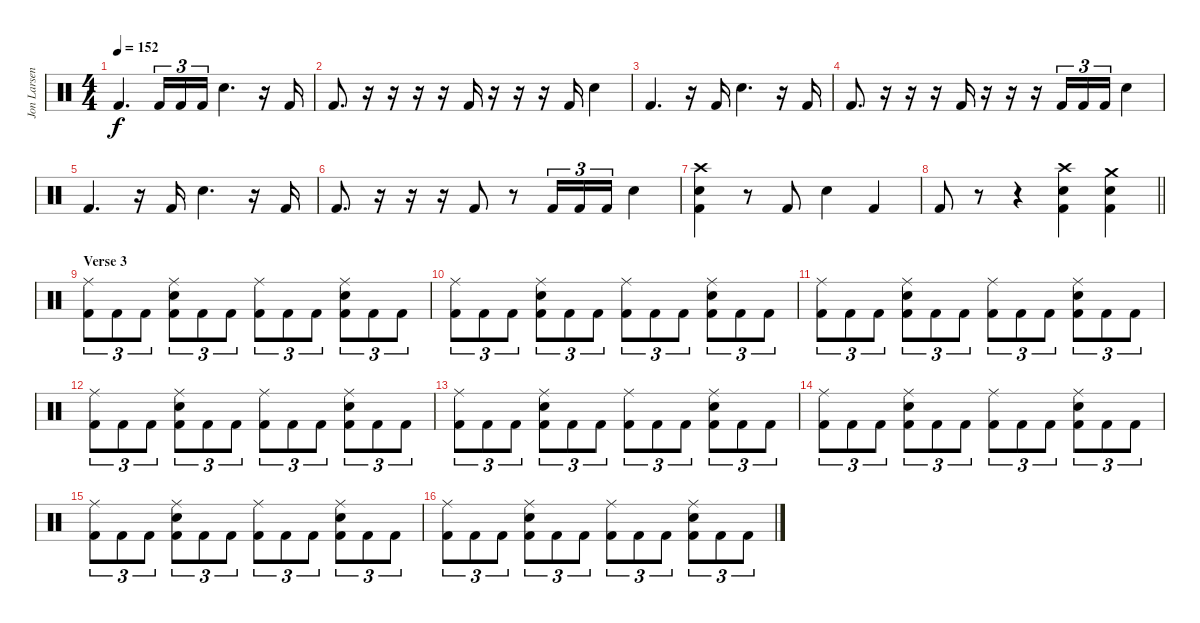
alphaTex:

\track ("Jon Larsen" "Jon Larsen") {instrument percussion}
\staff {score}
\articulation defaults
\ts (4 4)
\tempo 152
\clef neutral
\ks c "Kick (hit) 2".4{d dy f} "Kick (hit) 2".16{tu (3 2)} "Kick (hit) 2".16{tu (3 2)} "Kick (hit) 2".16{tu (3 2)} "Electric Snare (hit)".4{d}
r.16 "Kick (hit) 2".16 |
"Kick (hit) 2".8{d} r.16 r.16 r.16 r.16 "Kick (hit) 2".16 r.16 r.16 r.16 "Kick (hit) 2".16 "Electric Snare (hit)".4 |
"Kick (hit) 2".4{d} r.16 "Kick (hit) 2".16 "Electric Snare (hit)".4{d} r.16 "Kick (hit) 2".16 |
"Kick (hit) 2".8{d} r.16 r.16 r.16 "Kick (hit) 2".16 r.16 r.16 r.16 "Kick (hit) 2".16{tu (3 2)} "Kick (hit) 2".16{tu (3 2)} "Kick (hit) 2".16{tu (3 2)} "Electric Snare (hit)".4 |
"Kick (hit) 2".4{d} r.16 "Kick (hit) 2".16 "Electric Snare (hit)".4{d} r.16 "Kick (hit) 2".16 |
"Kick (hit) 2".8{d} r.16 r.16 r.16 "Kick (hit) 2".8 r.8 "Kick (hit) 2".16{tu (3 2)} "Kick (hit) 2".16{tu (3 2)} "Kick (hit) 2".16{tu (3 2)} "Electric Snare (hit)".4 |
("Kick (hit) 2" "Electric Snare (hit)" "Crash high (hit)").4 r.8 "Kick (hit) 2".8 "Electric Snare (hit)".4 "Kick (hit) 2".4 |
\barLineRight lightlight "Kick (hit) 2".8
r.8 r.4 ("Kick (hit) 2" "Electric Snare (hit)" "Crash high (hit)").4 ("Kick (hit) 2" "Electric Snare (hit)" "Crash medium (hit)").4 |
\section ("" "Verse 3")
("Kick (hit) 2" "Ride (middle)").8{tu (3 2)} "Kick (hit) 2".8{tu (3 2)} "Kick (hit) 2".8{tu (3 2)} ("Kick (hit) 2" "Electric Snare (hit)" "Ride (middle)").8{tu (3 2)} "Kick (hit) 2".8{tu (3 2)} "Kick (hit) 2".8{tu (3 2)} ("Kick (hit) 2" "Ride (middle)").8{tu (3 2)} "Kick (hit) 2".8{tu (3 2)} "Kick (hit) 2".8{tu (3 2)} ("Kick (hit) 2" "Electric Snare (hit)" "Ride (middle)").8{tu (3 2)} "Kick (hit) 2".8{tu (3 2)} "Kick (hit) 2".8{tu (3 2)} |
("Kick (hit) 2" "Ride (middle)").8{tu (3 2)} "Kick (hit) 2".8{tu (3 2)} "Kick (hit) 2".8{tu (3 2)} ("Kick (hit) 2" "Electric Snare (hit)" "Ride (middle)").8{tu (3 2)} "Kick (hit) 2".8{tu (3 2)} "Kick (hit) 2".8{tu (3 2)} ("Kick (hit) 2" "Ride (middle)").8{tu (3 2)} "Kick (hit) 2".8{tu (3 2)} "Kick (hit) 2".8{tu (3 2)} ("Kick (hit) 2" "Electric Snare (hit)" "Ride (middle)").8{tu (3 2)} "Kick (hit) 2".8{tu (3 2)} "Kick (hit) 2".8{tu (3 2)} |
("Kick (hit) 2" "Ride (middle)").8{tu (3 2)} "Kick (hit) 2".8{tu (3 2)} "Kick (hit) 2".8{tu (3 2)} ("Kick (hit) 2" "Electric Snare (hit)" "Ride (middle)").8{tu (3 2)} "Kick (hit) 2".8{tu (3 2)} "Kick (hit) 2".8{tu (3 2)} ("Kick (hit) 2" "Ride (middle)").8{tu (3 2)} "Kick (hit) 2".8{tu (3 2)} "Kick (hit) 2".8{tu (3 2)} ("Kick (hit) 2" "Electric Snare (hit)" "Ride (middle)").8{tu (3 2)} "Kick (hit) 2".8{tu (3 2)} "Kick (hit) 2".8{tu (3 2)} |
("Kick (hit) 2" "Ride (middle)").8{tu (3 2)} "Kick (hit) 2".8{tu (3 2)} "Kick (hit) 2".8{tu (3 2)} ("Kick (hit) 2" "Electric Snare (hit)" "Ride (middle)").8{tu (3 2)} "Kick (hit) 2".8{tu (3 2)} "Kick (hit) 2".8{tu (3 2)} ("Kick (hit) 2" "Ride (middle)").8{tu (3 2)} "Kick (hit) 2".8{tu (3 2)} "Kick (hit) 2".8{tu (3 2)} ("Kick (hit) 2" "Electric Snare (hit)" "Ride (middle)").8{tu (3 2)} "Kick (hit) 2".8{tu (3 2)} "Kick (hit) 2".8{tu (3 2)} |
("Kick (hit) 2" "Ride (middle)").8{tu (3 2)} "Kick (hit) 2".8{tu (3 2)} "Kick (hit) 2".8{tu (3 2)} ("Kick (hit) 2" "Electric Snare (hit)" "Ride (middle)").8{tu (3 2)} "Kick (hit) 2".8{tu (3 2)} "Kick (hit) 2".8{tu (3 2)} ("Kick (hit) 2" "Ride (middle)").8{tu (3 2)} "Kick (hit) 2".8{tu (3 2)} "Kick (hit) 2".8{tu (3 2)} ("Kick (hit) 2" "Electric Snare (hit)" "Ride (middle)").8{tu (3 2)} "Kick (hit) 2".8{tu (3 2)} "Kick (hit) 2".8{tu (3 2)} |
("Kick (hit) 2" "Ride (middle)").8{tu (3 2)} "Kick (hit) 2".8{tu (3 2)} "Kick (hit) 2".8{tu (3 2)} ("Kick (hit) 2" "Electric Snare (hit)" "Ride (middle)").8{tu (3 2)} "Kick (hit) 2".8{tu (3 2)} "Kick (hit) 2".8{tu (3 2)} ("Kick (hit) 2" "Ride (middle)").8{tu (3 2)} "Kick (hit) 2".8{tu (3 2)} "Kick (hit) 2".8{tu (3 2)} ("Kick (hit) 2" "Electric Snare (hit)" "Ride (middle)").8{tu (3 2)} "Kick (hit) 2".8{tu (3 2)} "Kick (hit) 2".8{tu (3 2)} |
("Kick (hit) 2" "Ride (middle)").8{tu (3 2)} "Kick (hit) 2".8{tu (3 2)} "Kick (hit) 2".8{tu (3 2)} ("Kick (hit) 2" "Electric Snare (hit)" "Ride (middle)").8{tu (3 2)} "Kick (hit) 2".8{tu (3 2)} "Kick (hit) 2".8{tu (3 2)} ("Kick (hit) 2" "Ride (middle)").8{tu (3 2)} "Kick (hit) 2".8{tu (3 2)} "Kick (hit) 2".8{tu (3 2)} ("Kick (hit) 2" "Electric Snare (hit)" "Ride (middle)").8{tu (3 2)} "Kick (hit) 2".8{tu (3 2)} "Kick (hit) 2".8{tu (3 2)} |
("Kick (hit) 2" "Ride (middle)").8{tu (3 2)} "Kick (hit) 2".8{tu (3 2)} "Kick (hit) 2".8{tu (3 2)} ("Kick (hit) 2" "Electric Snare (hit)" "Ride (middle)").8{tu (3 2)} "Kick (hit) 2".8{tu (3 2)} "Kick (hit) 2".8{tu (3 2)} ("Kick (hit) 2" "Ride (middle)").8{tu (3 2)} "Kick (hit) 2".8{tu (3 2)} "Kick (hit) 2".8{tu (3 2)} ("Kick (hit) 2" "Electric Snare (hit)" "Ride (middle)").8{tu (3 2)} "Kick (hit) 2".8{tu (3 2)} "Kick (hit) 2".8{tu (3 2)}
